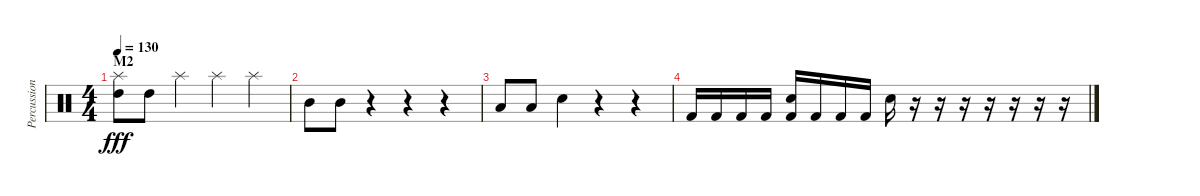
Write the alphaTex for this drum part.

\track ("Percussion" "Percussion") {instrument percussion}
\staff {score}
\articulation defaults
\ts (4 4)
\section ("" "M2")
\tempo 130
\clef neutral
\ks c
("High Tom (hit)" "Splash (hit)").8{dy fff} "High Tom (hit)".8 "Splash (hit)".4 "Splash (hit)".4 "Splash (hit)".4 |
"Mid Tom (hit)".8 "Mid Tom (hit)".8 r.4 r.4 r.4 |
"Low Tom (hit)".8 "Low Tom (hit)".8 "Electric Snare (hit)".4 r.4 r.4 |
"Kick (hit) 2".16 "Kick (hit) 2".16 "Kick (hit) 2".16 "Kick (hit) 2".16 ("Kick (hit) 2" "Electric Snare (hit)").16 "Kick (hit) 2".16 "Kick (hit) 2".16 "Kick (hit) 2".16 "Electric Snare (hit)".16 r.16 r.16 r.16 r.16 r.16 r.16 r.16
